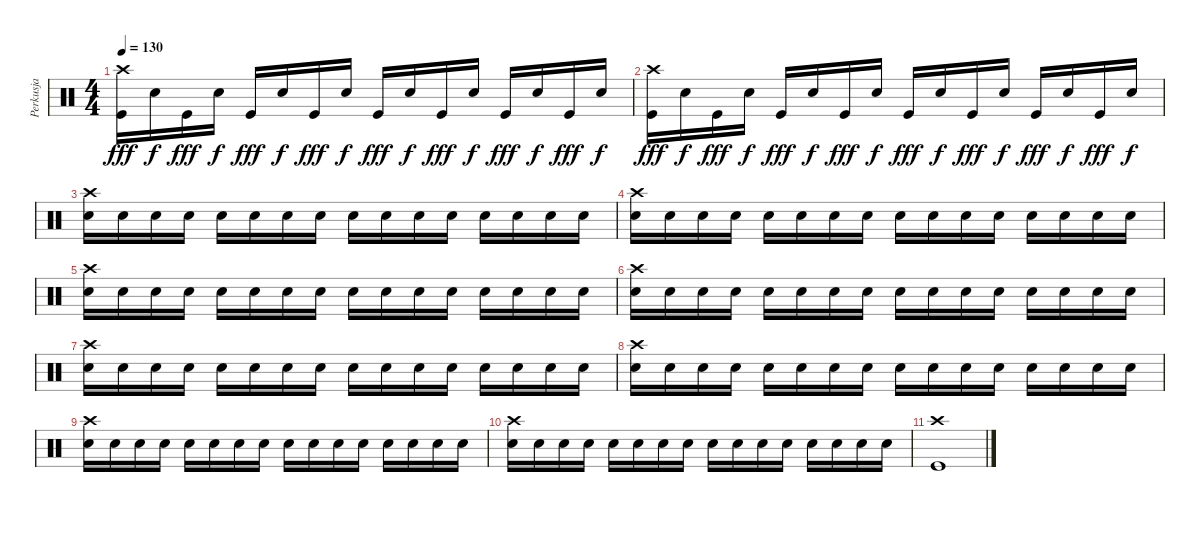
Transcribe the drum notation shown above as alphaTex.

\track ("Perkusja" "Perkusja") {instrument percussion}
\staff {score}
\articulation defaults
\ts (4 4)
\tempo 130
\clef neutral
\ks c
("Crash high (hit)" "Kick (hit)").16{dy fff} "Snare (hit) 2".16{dy f} "Kick (hit)".16{dy fff} "Snare (hit) 2".16{dy f} "Kick (hit)".16{dy fff} "Snare (hit) 2".16{dy f} "Kick (hit)".16{dy fff} "Snare (hit) 2".16{dy f} "Kick (hit)".16{dy fff} "Snare (hit) 2".16{dy f} "Kick (hit)".16{dy fff} "Snare (hit) 2".16{dy f} "Kick (hit)".16{dy fff} "Snare (hit) 2".16{dy f} "Kick (hit)".16{dy fff} "Snare (hit) 2".16{dy f} |
("Crash high (hit)" "Kick (hit)").16{dy fff} "Snare (hit) 2".16{dy f} "Kick (hit)".16{dy fff} "Snare (hit) 2".16{dy f} "Kick (hit)".16{dy fff} "Snare (hit) 2".16{dy f} "Kick (hit)".16{dy fff} "Snare (hit) 2".16{dy f} "Kick (hit)".16{dy fff} "Snare (hit) 2".16{dy f} "Kick (hit)".16{dy fff} "Snare (hit) 2".16{dy f} "Kick (hit)".16{dy fff} "Snare (hit) 2".16{dy f} "Kick (hit)".16{dy fff} "Snare (hit) 2".16{dy f} |
("Crash high (hit)" "Snare (hit) 2").16 "Snare (hit) 2".16 "Snare (hit) 2".16 "Snare (hit) 2".16 "Snare (hit) 2".16 "Snare (hit) 2".16 "Snare (hit) 2".16 "Snare (hit) 2".16 "Snare (hit) 2".16 "Snare (hit) 2".16 "Snare (hit) 2".16 "Snare (hit) 2".16 "Snare (hit) 2".16 "Snare (hit) 2".16 "Snare (hit) 2".16 "Snare (hit) 2".16 |
("Crash high (hit)" "Snare (hit) 2").16 "Snare (hit) 2".16 "Snare (hit) 2".16 "Snare (hit) 2".16 "Snare (hit) 2".16 "Snare (hit) 2".16 "Snare (hit) 2".16 "Snare (hit) 2".16 "Snare (hit) 2".16 "Snare (hit) 2".16 "Snare (hit) 2".16 "Snare (hit) 2".16 "Snare (hit) 2".16 "Snare (hit) 2".16 "Snare (hit) 2".16 "Snare (hit) 2".16 |
("Crash high (hit)" "Snare (hit) 2").16 "Snare (hit) 2".16 "Snare (hit) 2".16 "Snare (hit) 2".16 "Snare (hit) 2".16 "Snare (hit) 2".16 "Snare (hit) 2".16 "Snare (hit) 2".16 "Snare (hit) 2".16 "Snare (hit) 2".16 "Snare (hit) 2".16 "Snare (hit) 2".16 "Snare (hit) 2".16 "Snare (hit) 2".16 "Snare (hit) 2".16 "Snare (hit) 2".16 |
("Crash high (hit)" "Snare (hit) 2").16 "Snare (hit) 2".16 "Snare (hit) 2".16 "Snare (hit) 2".16 "Snare (hit) 2".16 "Snare (hit) 2".16 "Snare (hit) 2".16 "Snare (hit) 2".16 "Snare (hit) 2".16 "Snare (hit) 2".16 "Snare (hit) 2".16 "Snare (hit) 2".16 "Snare (hit) 2".16 "Snare (hit) 2".16 "Snare (hit) 2".16 "Snare (hit) 2".16 |
("Crash high (hit)" "Snare (hit) 2").16 "Snare (hit) 2".16 "Snare (hit) 2".16 "Snare (hit) 2".16 "Snare (hit) 2".16 "Snare (hit) 2".16 "Snare (hit) 2".16 "Snare (hit) 2".16 "Snare (hit) 2".16 "Snare (hit) 2".16 "Snare (hit) 2".16 "Snare (hit) 2".16 "Snare (hit) 2".16 "Snare (hit) 2".16 "Snare (hit) 2".16 "Snare (hit) 2".16 |
("Crash high (hit)" "Snare (hit) 2").16 "Snare (hit) 2".16 "Snare (hit) 2".16 "Snare (hit) 2".16 "Snare (hit) 2".16 "Snare (hit) 2".16 "Snare (hit) 2".16 "Snare (hit) 2".16 "Snare (hit) 2".16 "Snare (hit) 2".16 "Snare (hit) 2".16 "Snare (hit) 2".16 "Snare (hit) 2".16 "Snare (hit) 2".16 "Snare (hit) 2".16 "Snare (hit) 2".16 |
("Crash high (hit)" "Snare (hit) 2").16 "Snare (hit) 2".16 "Snare (hit) 2".16 "Snare (hit) 2".16 "Snare (hit) 2".16 "Snare (hit) 2".16 "Snare (hit) 2".16 "Snare (hit) 2".16 "Snare (hit) 2".16 "Snare (hit) 2".16 "Snare (hit) 2".16 "Snare (hit) 2".16 "Snare (hit) 2".16 "Snare (hit) 2".16 "Snare (hit) 2".16 "Snare (hit) 2".16 |
("Crash high (hit)" "Snare (hit) 2").16 "Snare (hit) 2".16 "Snare (hit) 2".16 "Snare (hit) 2".16 "Snare (hit) 2".16 "Snare (hit) 2".16 "Snare (hit) 2".16 "Snare (hit) 2".16 "Snare (hit) 2".16 "Snare (hit) 2".16 "Snare (hit) 2".16 "Snare (hit) 2".16 "Snare (hit) 2".16 "Snare (hit) 2".16 "Snare (hit) 2".16 "Snare (hit) 2".16 |
("Crash high (hit)" "Kick (hit)").1
